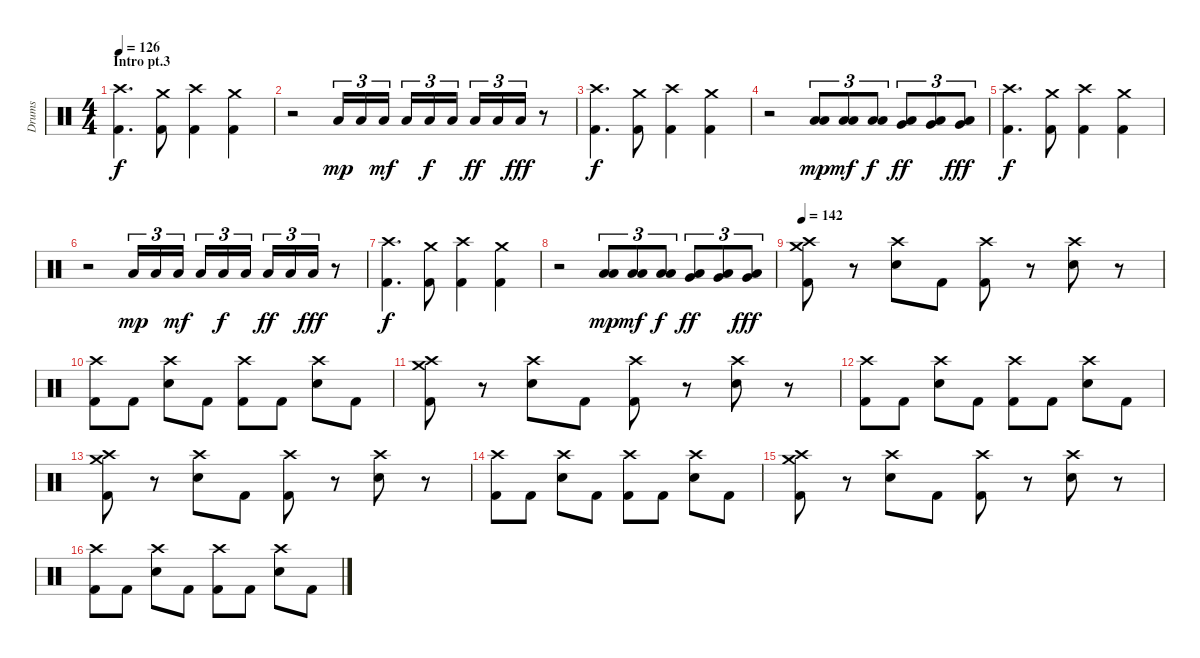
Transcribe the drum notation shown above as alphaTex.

\track ("Drums" "Drums") {instrument percussion}
\staff {score}
\articulation defaults
\ts (4 4)
\section ("" "Intro pt.3")
\tempo 126
\clef neutral
\ks c
("Crash high (hit)" "Kick (hit) 2").4{d dy f} ("Crash medium (hit)" "Kick (hit) 2").8 ("Crash high (hit)" "Kick (hit) 2").4 ("Crash medium (hit)" "Kick (hit) 2").4 |
r.2 "Low Floor Tom (hit)".16{tu (3 2) dy mp} "Low Floor Tom (hit)".16{tu (3 2)} "Low Floor Tom (hit)".16{tu (3 2) dy mf beam splitsecondary} "Low Floor Tom (hit)".16{tu (3 2)} "Low Floor Tom (hit)".16{tu (3 2) dy f} "Low Floor Tom (hit)".16{tu (3 2)} "Low Floor Tom (hit)".16{tu (3 2) dy ff} "Low Floor Tom (hit)".16{tu (3 2)} "Low Floor Tom (hit)".16{tu (3 2) dy fff} r.8 |
("Crash high (hit)" "Kick (hit) 2").4{d dy f} ("Crash medium (hit)" "Kick (hit) 2").8 ("Crash high (hit)" "Kick (hit) 2").4 ("Crash medium (hit)" "Kick (hit) 2").4 |
r.2 ("Low Tom (hit)" "Low Floor Tom (hit)").8{tu (3 2) dy mp} ("Low Tom (hit)" "Low Floor Tom (hit)").8{tu (3 2) dy mf} ("Low Tom (hit)" "Low Floor Tom (hit)").8{tu (3 2) dy f} ("Very Low Tom (hit)" "Low Floor Tom (hit)").8{tu (3 2) dy ff} ("Very Low Tom (hit)" "Low Floor Tom (hit)").8{tu (3 2)} ("Very Low Tom (hit)" "Low Floor Tom (hit)").8{tu (3 2) dy fff} |
("Crash high (hit)" "Kick (hit) 2").4{d dy f} ("Crash medium (hit)" "Kick (hit) 2").8 ("Crash high (hit)" "Kick (hit) 2").4 ("Crash medium (hit)" "Kick (hit) 2").4 |
r.2 "Low Floor Tom (hit)".16{tu (3 2) dy mp} "Low Floor Tom (hit)".16{tu (3 2)} "Low Floor Tom (hit)".16{tu (3 2) dy mf beam splitsecondary} "Low Floor Tom (hit)".16{tu (3 2)} "Low Floor Tom (hit)".16{tu (3 2) dy f} "Low Floor Tom (hit)".16{tu (3 2)} "Low Floor Tom (hit)".16{tu (3 2) dy ff} "Low Floor Tom (hit)".16{tu (3 2)} "Low Floor Tom (hit)".16{tu (3 2) dy fff} r.8 |
("Crash high (hit)" "Kick (hit) 2").4{d dy f} ("Crash medium (hit)" "Kick (hit) 2").8 ("Crash high (hit)" "Kick (hit) 2").4 ("Crash medium (hit)" "Kick (hit) 2").4 |
r.2 ("Low Tom (hit)" "Low Floor Tom (hit)").8{tu (3 2) dy mp} ("Low Tom (hit)" "Low Floor Tom (hit)").8{tu (3 2) dy mf} ("Low Tom (hit)" "Low Floor Tom (hit)").8{tu (3 2) dy f} ("Very Low Tom (hit)" "Low Floor Tom (hit)").8{tu (3 2) dy ff} ("Very Low Tom (hit)" "Low Floor Tom (hit)").8{tu (3 2)} ("Very Low Tom (hit)" "Low Floor Tom (hit)").8{tu (3 2) dy fff} |
\tempo 142
("Crash high (hit)" "Crash medium (hit)" "Kick (hit) 2").8 r.8 ("Crash high (hit)" "Snare (hit) 2").8 "Kick (hit) 2".8 ("Crash high (hit)" "Kick (hit) 2").8 r.8 ("Crash high (hit)" "Snare (hit) 2").8 r.8 |
("Crash high (hit)" "Kick (hit) 2").8 "Kick (hit) 2".8 ("Crash high (hit)" "Snare (hit) 2").8 "Kick (hit) 2".8 ("Crash high (hit)" "Kick (hit) 2").8 "Kick (hit) 2".8 ("Crash high (hit)" "Snare (hit) 2").8 "Kick (hit) 2".8 |
("Crash high (hit)" "Crash medium (hit)" "Kick (hit) 2").8 r.8 ("Crash high (hit)" "Snare (hit) 2").8 "Kick (hit) 2".8 ("Crash high (hit)" "Kick (hit) 2").8 r.8 ("Crash high (hit)" "Snare (hit) 2").8 r.8 |
("Crash high (hit)" "Kick (hit) 2").8 "Kick (hit) 2".8 ("Crash high (hit)" "Snare (hit) 2").8 "Kick (hit) 2".8 ("Crash high (hit)" "Kick (hit) 2").8 "Kick (hit) 2".8 ("Crash high (hit)" "Snare (hit) 2").8 "Kick (hit) 2".8 |
("Crash high (hit)" "Crash medium (hit)" "Kick (hit) 2").8 r.8 ("Crash high (hit)" "Snare (hit) 2").8 "Kick (hit) 2".8 ("Crash high (hit)" "Kick (hit) 2").8 r.8 ("Crash high (hit)" "Snare (hit) 2").8 r.8 |
("Crash high (hit)" "Kick (hit) 2").8 "Kick (hit) 2".8 ("Crash high (hit)" "Snare (hit) 2").8 "Kick (hit) 2".8 ("Crash high (hit)" "Kick (hit) 2").8 "Kick (hit) 2".8 ("Crash high (hit)" "Snare (hit) 2").8 "Kick (hit) 2".8 |
("Crash high (hit)" "Crash medium (hit)" "Kick (hit) 2").8 r.8 ("Crash high (hit)" "Snare (hit) 2").8 "Kick (hit) 2".8 ("Crash high (hit)" "Kick (hit) 2").8 r.8 ("Crash high (hit)" "Snare (hit) 2").8 r.8 |
("Crash high (hit)" "Kick (hit) 2").8 "Kick (hit) 2".8 ("Crash high (hit)" "Snare (hit) 2").8 "Kick (hit) 2".8 ("Crash high (hit)" "Kick (hit) 2").8 "Kick (hit) 2".8 ("Crash high (hit)" "Snare (hit) 2").8 "Kick (hit) 2".8
